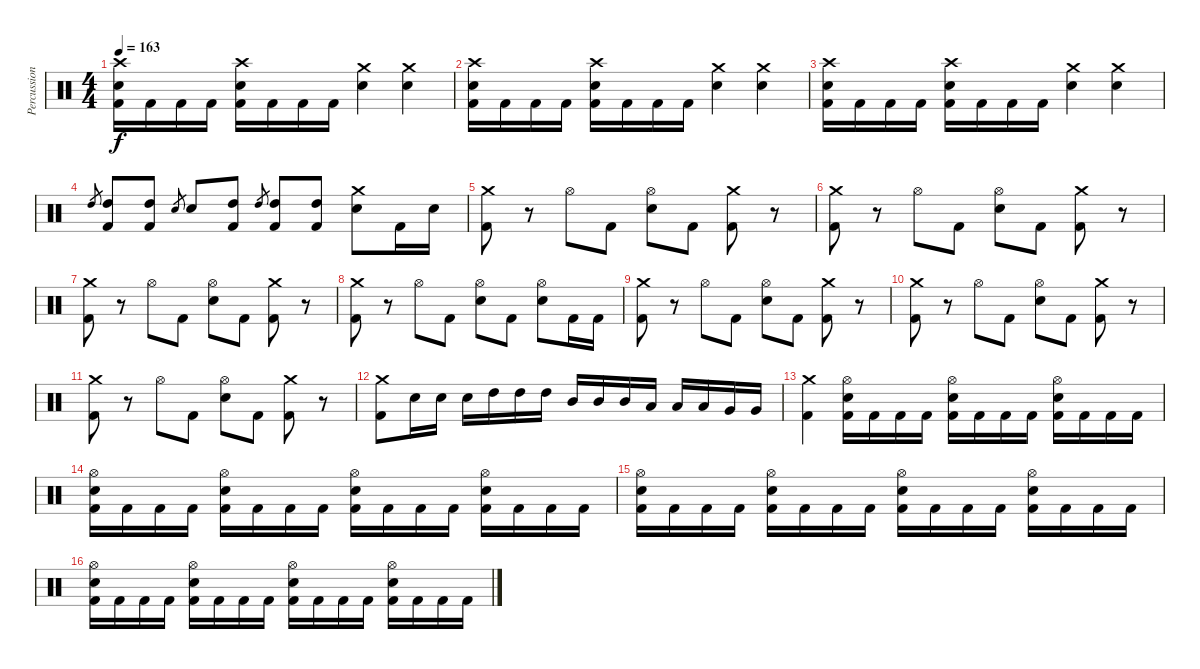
\track ("Percussion" "Percussion") {instrument percussion}
\staff {score}
\articulation defaults
\ts (4 4)
\tempo 163
\clef neutral
\ks c
("Crash high (hit)" "Electric Snare (hit)" "Kick (hit) 2").16{dy f} "Kick (hit) 2".16 "Kick (hit) 2".16 "Kick (hit) 2".16 ("Crash high (hit)" "Electric Snare (hit)" "Kick (hit) 2").16 "Kick (hit) 2".16 "Kick (hit) 2".16 "Kick (hit) 2".16 ("Crash medium (hit)" "Electric Snare (hit)").4 ("Crash medium (hit)" "Electric Snare (hit)").4 |
("Crash high (hit)" "Electric Snare (hit)" "Kick (hit) 2").16 "Kick (hit) 2".16 "Kick (hit) 2".16 "Kick (hit) 2".16 ("Crash high (hit)" "Electric Snare (hit)" "Kick (hit) 2").16 "Kick (hit) 2".16 "Kick (hit) 2".16 "Kick (hit) 2".16 ("Crash medium (hit)" "Electric Snare (hit)").4 ("Crash medium (hit)" "Electric Snare (hit)").4 |
("Crash high (hit)" "Electric Snare (hit)" "Kick (hit) 2").16 "Kick (hit) 2".16 "Kick (hit) 2".16 "Kick (hit) 2".16 ("Crash high (hit)" "Electric Snare (hit)" "Kick (hit) 2").16 "Kick (hit) 2".16 "Kick (hit) 2".16 "Kick (hit) 2".16 ("Crash medium (hit)" "Electric Snare (hit)").4 ("Crash medium (hit)" "Electric Snare (hit)").4 |
"High Tom (hit)".8{gr} ("High Tom (hit)" "Kick (hit) 2").8 ("High Tom (hit)" "Kick (hit) 2").8 "Electric Snare (hit)".8{gr} "Electric Snare (hit)".8 ("High Tom (hit)" "Kick (hit) 2").8 "High Tom (hit)".8{gr} ("High Tom (hit)" "Kick (hit) 2").8 ("High Tom (hit)" "Kick (hit) 2").8 ("Crash medium (hit)" "Electric Snare (hit)").8 "Kick (hit) 2".16 "Electric Snare (hit)".16 |
("Crash medium (hit)" "Kick (hit) 2").8 r.8 "Hi-Hat (open)".8 "Kick (hit) 2".8 ("Hi-Hat (open)" "Electric Snare (hit)").8 "Kick (hit) 2".8 ("Crash medium (hit)" "Kick (hit) 2").8 r.8 |
("Crash medium (hit)" "Kick (hit) 2").8 r.8 "Hi-Hat (open)".8 "Kick (hit) 2".8 ("Hi-Hat (open)" "Electric Snare (hit)").8 "Kick (hit) 2".8 ("Crash medium (hit)" "Kick (hit) 2").8 r.8 |
("Crash medium (hit)" "Kick (hit) 2").8 r.8 "Hi-Hat (open)".8 "Kick (hit) 2".8 ("Hi-Hat (open)" "Electric Snare (hit)").8 "Kick (hit) 2".8 ("Crash medium (hit)" "Kick (hit) 2").8 r.8 |
("Crash medium (hit)" "Kick (hit) 2").8 r.8 "Hi-Hat (open)".8 "Kick (hit) 2".8 ("Hi-Hat (open)" "Electric Snare (hit)").8 "Kick (hit) 2".8 ("Hi-Hat (open)" "Electric Snare (hit)").8 "Kick (hit) 2".16 "Kick (hit) 2".16 |
("Crash medium (hit)" "Kick (hit) 2").8 r.8 "Hi-Hat (open)".8 "Kick (hit) 2".8 ("Hi-Hat (open)" "Electric Snare (hit)").8 "Kick (hit) 2".8 ("Crash medium (hit)" "Kick (hit) 2").8 r.8 |
("Crash medium (hit)" "Kick (hit) 2").8 r.8 "Hi-Hat (open)".8 "Kick (hit) 2".8 ("Hi-Hat (open)" "Electric Snare (hit)").8 "Kick (hit) 2".8 ("Crash medium (hit)" "Kick (hit) 2").8 r.8 |
("Crash medium (hit)" "Kick (hit) 2").8 r.8 "Hi-Hat (open)".8 "Kick (hit) 2".8 ("Hi-Hat (open)" "Electric Snare (hit)").8 "Kick (hit) 2".8 ("Crash medium (hit)" "Kick (hit) 2").8 r.8 |
("Crash medium (hit)" "Kick (hit) 2").8 "Electric Snare (hit)".16 "Electric Snare (hit)".16 "Electric Snare (hit)".16 "High Tom (hit)".16 "High Tom (hit)".16 "High Tom (hit)".16 "Mid Tom (hit)".16 "Mid Tom (hit)".16 "Mid Tom (hit)".16 "Low Tom (hit)".16 "Low Tom (hit)".16 "Low Tom (hit)".16 "Very Low Tom (hit)".16 "Very Low Tom (hit)".16 |
("Crash medium (hit)" "Kick (hit) 2").4 ("Hi-Hat (open)" "Electric Snare (hit)" "Kick (hit) 2").16 "Kick (hit) 2".16 "Kick (hit) 2".16 "Kick (hit) 2".16 ("Hi-Hat (open)" "Electric Snare (hit)" "Kick (hit) 2").16 "Kick (hit) 2".16 "Kick (hit) 2".16 "Kick (hit) 2".16 ("Hi-Hat (open)" "Electric Snare (hit)" "Kick (hit) 2").16 "Kick (hit) 2".16 "Kick (hit) 2".16 "Kick (hit) 2".16 |
("Hi-Hat (open)" "Electric Snare (hit)" "Kick (hit) 2").16 "Kick (hit) 2".16 "Kick (hit) 2".16 "Kick (hit) 2".16 ("Hi-Hat (open)" "Electric Snare (hit)" "Kick (hit) 2").16 "Kick (hit) 2".16 "Kick (hit) 2".16 "Kick (hit) 2".16 ("Hi-Hat (open)" "Electric Snare (hit)" "Kick (hit) 2").16 "Kick (hit) 2".16 "Kick (hit) 2".16 "Kick (hit) 2".16 ("Hi-Hat (open)" "Electric Snare (hit)" "Kick (hit) 2").16 "Kick (hit) 2".16 "Kick (hit) 2".16 "Kick (hit) 2".16 |
("Hi-Hat (open)" "Electric Snare (hit)" "Kick (hit) 2").16 "Kick (hit) 2".16 "Kick (hit) 2".16 "Kick (hit) 2".16 ("Hi-Hat (open)" "Electric Snare (hit)" "Kick (hit) 2").16 "Kick (hit) 2".16 "Kick (hit) 2".16 "Kick (hit) 2".16 ("Hi-Hat (open)" "Electric Snare (hit)" "Kick (hit) 2").16 "Kick (hit) 2".16 "Kick (hit) 2".16 "Kick (hit) 2".16 ("Hi-Hat (open)" "Electric Snare (hit)" "Kick (hit) 2").16 "Kick (hit) 2".16 "Kick (hit) 2".16 "Kick (hit) 2".16 |
("Hi-Hat (open)" "Electric Snare (hit)" "Kick (hit) 2").16 "Kick (hit) 2".16 "Kick (hit) 2".16 "Kick (hit) 2".16 ("Hi-Hat (open)" "Electric Snare (hit)" "Kick (hit) 2").16 "Kick (hit) 2".16 "Kick (hit) 2".16 "Kick (hit) 2".16 ("Hi-Hat (open)" "Electric Snare (hit)" "Kick (hit) 2").16 "Kick (hit) 2".16 "Kick (hit) 2".16 "Kick (hit) 2".16 ("Hi-Hat (open)" "Electric Snare (hit)" "Kick (hit) 2").16 "Kick (hit) 2".16 "Kick (hit) 2".16 "Kick (hit) 2".16
